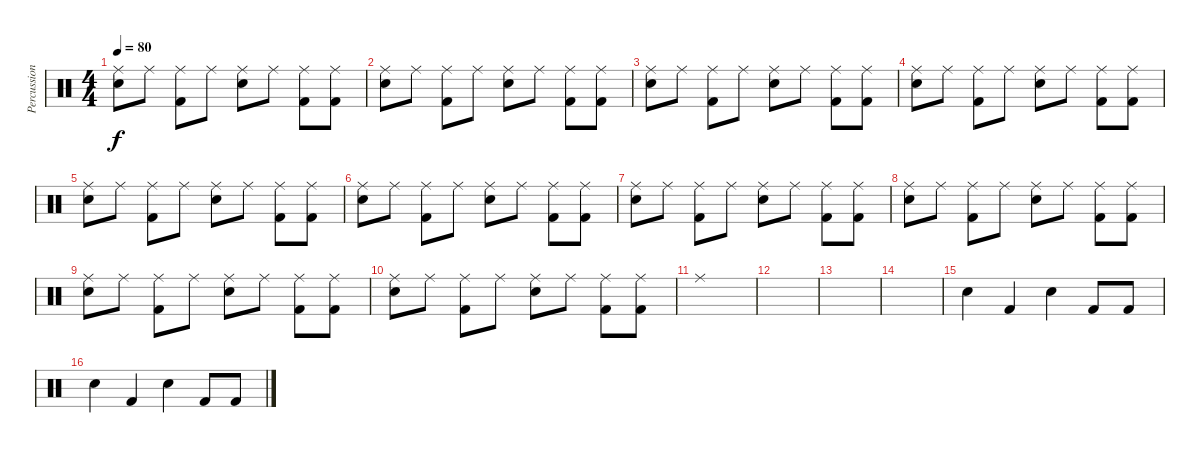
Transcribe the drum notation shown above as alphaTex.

\track ("Percussions" "Percussion") {instrument percussion}
\staff {score}
\articulation defaults
\ts (4 4)
\tempo 80
\clef neutral
\ks c
("Ride (middle)" "Snare (hit) 2").8{dy f} "Ride (middle)".8 ("Ride (middle)" "Kick (hit) 2").8 "Ride (middle)".8 ("Ride (middle)" "Snare (hit) 2").8 "Ride (middle)".8 ("Ride (middle)" "Kick (hit) 2").8 ("Ride (middle)" "Kick (hit) 2").8 |
("Ride (middle)" "Snare (hit) 2").8 "Ride (middle)".8 ("Ride (middle)" "Kick (hit) 2").8 "Ride (middle)".8 ("Ride (middle)" "Snare (hit) 2").8 "Ride (middle)".8 ("Ride (middle)" "Kick (hit) 2").8 ("Ride (middle)" "Kick (hit) 2").8 |
("Ride (middle)" "Snare (hit) 2").8 "Ride (middle)".8 ("Ride (middle)" "Kick (hit) 2").8 "Ride (middle)".8 ("Ride (middle)" "Snare (hit) 2").8 "Ride (middle)".8 ("Ride (middle)" "Kick (hit) 2").8 ("Ride (middle)" "Kick (hit) 2").8 |
("Ride (middle)" "Snare (hit) 2").8 "Ride (middle)".8 ("Ride (middle)" "Kick (hit) 2").8 "Ride (middle)".8 ("Ride (middle)" "Snare (hit) 2").8 "Ride (middle)".8 ("Ride (middle)" "Kick (hit) 2").8 ("Ride (middle)" "Kick (hit) 2").8 |
("Ride (middle)" "Snare (hit) 2").8 "Ride (middle)".8 ("Ride (middle)" "Kick (hit) 2").8 "Ride (middle)".8 ("Ride (middle)" "Snare (hit) 2").8 "Ride (middle)".8 ("Ride (middle)" "Kick (hit) 2").8 ("Ride (middle)" "Kick (hit) 2").8 |
("Ride (middle)" "Snare (hit) 2").8 "Ride (middle)".8 ("Ride (middle)" "Kick (hit) 2").8 "Ride (middle)".8 ("Ride (middle)" "Snare (hit) 2").8 "Ride (middle)".8 ("Ride (middle)" "Kick (hit) 2").8 ("Ride (middle)" "Kick (hit) 2").8 |
("Ride (middle)" "Snare (hit) 2").8 "Ride (middle)".8 ("Ride (middle)" "Kick (hit) 2").8 "Ride (middle)".8 ("Ride (middle)" "Snare (hit) 2").8 "Ride (middle)".8 ("Ride (middle)" "Kick (hit) 2").8 ("Ride (middle)" "Kick (hit) 2").8 |
("Ride (middle)" "Snare (hit) 2").8 "Ride (middle)".8 ("Ride (middle)" "Kick (hit) 2").8 "Ride (middle)".8 ("Ride (middle)" "Snare (hit) 2").8 "Ride (middle)".8 ("Ride (middle)" "Kick (hit) 2").8 ("Ride (middle)" "Kick (hit) 2").8 |
("Ride (middle)" "Snare (hit) 2").8 "Ride (middle)".8 ("Ride (middle)" "Kick (hit) 2").8 "Ride (middle)".8 ("Ride (middle)" "Snare (hit) 2").8 "Ride (middle)".8 ("Ride (middle)" "Kick (hit) 2").8 ("Ride (middle)" "Kick (hit) 2").8 |
("Ride (middle)" "Snare (hit) 2").8 "Ride (middle)".8 ("Ride (middle)" "Kick (hit) 2").8 "Ride (middle)".8 ("Ride (middle)" "Snare (hit) 2").8 "Ride (middle)".8 ("Ride (middle)" "Kick (hit) 2").8 ("Ride (middle)" "Kick (hit) 2").8 |
"Ride (middle)".1 |
|
|
|
"Snare (hit) 2".4 "Kick (hit) 2".4 "Snare (hit) 2".4 "Kick (hit) 2".8 "Kick (hit) 2".8 |
"Snare (hit) 2".4 "Kick (hit) 2".4 "Snare (hit) 2".4 "Kick (hit) 2".8 "Kick (hit) 2".8
